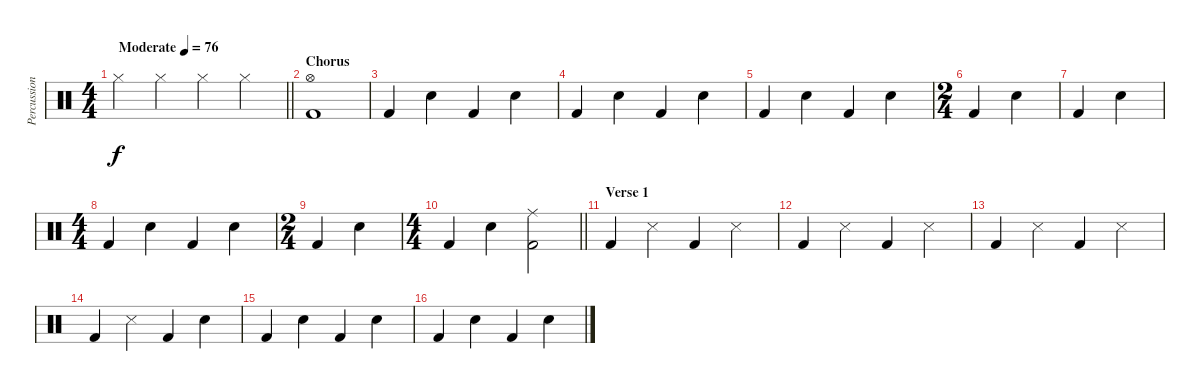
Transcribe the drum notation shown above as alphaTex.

\track ("Percussion" "Percussion") {instrument percussion}
\staff {score}
\articulation defaults
\ts (4 4)
\tempo (76 "Moderate")
\clef neutral
\barLineRight lightlight
\ks c "Hi-Hat (closed)".4{dy f} "Hi-Hat (closed)".4 "Hi-Hat (closed)".4 "Hi-Hat (closed)".4
|
\section ("" "Chorus")
("Hi-Hat (open)" "Kick (hit) 2").1 |
"Kick (hit) 2".4 "Snare (hit) 2".4 "Kick (hit) 2".4 "Snare (hit) 2".4 |
"Kick (hit) 2".4 "Snare (hit) 2".4 "Kick (hit) 2".4 "Snare (hit) 2".4 |
"Kick (hit) 2".4 "Snare (hit) 2".4 "Kick (hit) 2".4 "Snare (hit) 2".4 |
\ts (2 4)
"Kick (hit) 2".4 "Snare (hit) 2".4 |
"Kick (hit) 2".4 "Snare (hit) 2".4 |
\ts (4 4)
"Kick (hit) 2".4 "Snare (hit) 2".4 "Kick (hit) 2".4 "Snare (hit) 2".4 |
\ts (2 4)
"Kick (hit) 2".4 "Snare (hit) 2".4 |
\ts (4 4)
\barLineRight lightlight "Kick (hit) 2".4 "Snare (hit) 2".4
("Ride (middle)" "Kick (hit) 2").2 |
\section ("" "Verse 1")
"Kick (hit) 2".4 "Snare (side stick) 3".4 "Kick (hit) 2".4 "Snare (side stick) 3".4 |
"Kick (hit) 2".4 "Snare (side stick) 3".4 "Kick (hit) 2".4 "Snare (side stick) 3".4 |
"Kick (hit) 2".4 "Snare (side stick) 3".4 "Kick (hit) 2".4 "Snare (side stick) 3".4 |
"Kick (hit) 2".4 "Snare (side stick) 3".4 "Kick (hit) 2".4 "Snare (hit) 2".4 |
"Kick (hit) 2".4 "Snare (hit) 2".4 "Kick (hit) 2".4 "Snare (hit) 2".4 |
"Kick (hit) 2".4 "Snare (hit) 2".4 "Kick (hit) 2".4 "Snare (hit) 2".4
